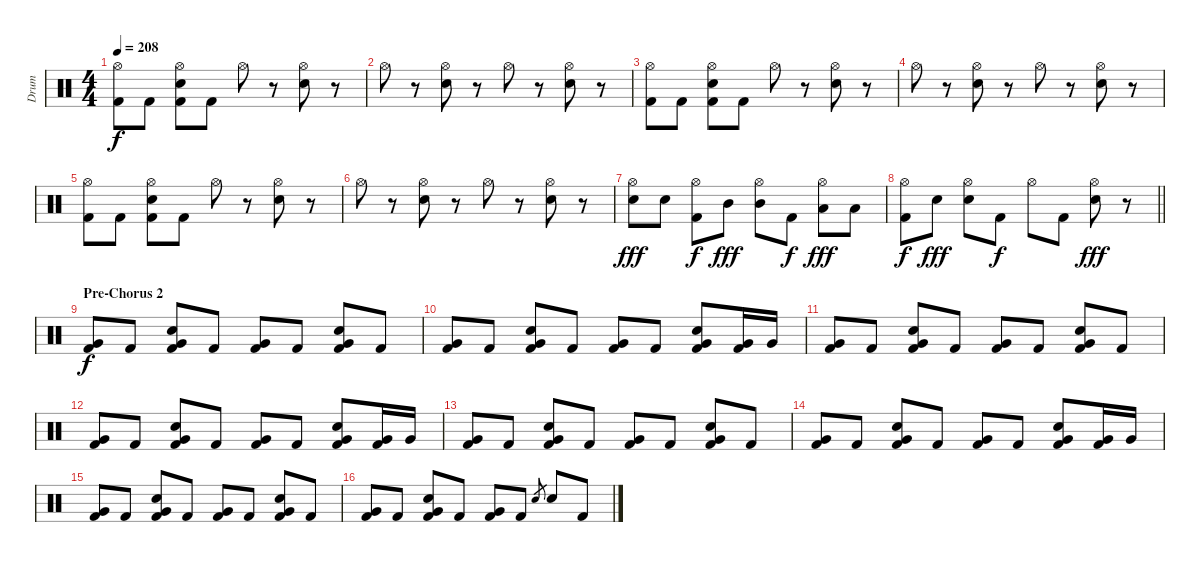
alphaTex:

\track ("Drum" "Drum") {instrument percussion}
\staff {score}
\articulation defaults
\ts (4 4)
\tempo 208
\clef neutral
\ks c
("Hi-Hat (open)" "Kick (hit) 2").8{dy f} "Kick (hit) 2".8 ("Hi-Hat (open)" "Electric Snare (hit)" "Kick (hit) 2").8 "Kick (hit) 2".8 "Hi-Hat (open)".8 r.8 ("Hi-Hat (open)" "Electric Snare (hit)").8 r.8 |
"Hi-Hat (open)".8 r.8 ("Hi-Hat (open)" "Electric Snare (hit)").8 r.8 "Hi-Hat (open)".8 r.8 ("Hi-Hat (open)" "Electric Snare (hit)").8 r.8 |
("Hi-Hat (open)" "Kick (hit) 2").8 "Kick (hit) 2".8 ("Hi-Hat (open)" "Electric Snare (hit)" "Kick (hit) 2").8 "Kick (hit) 2".8 "Hi-Hat (open)".8 r.8 ("Hi-Hat (open)" "Electric Snare (hit)").8 r.8 |
"Hi-Hat (open)".8 r.8 ("Hi-Hat (open)" "Electric Snare (hit)").8 r.8 "Hi-Hat (open)".8 r.8 ("Hi-Hat (open)" "Electric Snare (hit)").8 r.8 |
("Hi-Hat (open)" "Kick (hit) 2").8 "Kick (hit) 2".8 ("Hi-Hat (open)" "Electric Snare (hit)" "Kick (hit) 2").8 "Kick (hit) 2".8 "Hi-Hat (open)".8 r.8 ("Hi-Hat (open)" "Electric Snare (hit)").8 r.8 |
"Hi-Hat (open)".8 r.8 ("Hi-Hat (open)" "Electric Snare (hit)").8 r.8 "Hi-Hat (open)".8 r.8 ("Hi-Hat (open)" "Electric Snare (hit)").8 r.8 |
("Hi-Hat (open)" "Electric Snare (hit)").8{dy fff} "Electric Snare (hit)".8 ("Hi-Hat (open)" "Kick (hit) 2").8{dy f} "Mid Tom (hit)".8{dy fff} ("Hi-Hat (open)" "Mid Tom (hit)").8 "Kick (hit) 2".8{dy f} ("Hi-Hat (open)" "Low Tom (hit)").8{dy fff} "Low Tom (hit)".8 |
\barLineRight lightlight
("Hi-Hat (open)" "Kick (hit) 2").8{dy f} "Electric Snare (hit)".8{dy fff} ("Hi-Hat (open)" "Electric Snare (hit)").8 "Kick (hit) 2".8{dy f} "Hi-Hat (open)".8 "Kick (hit) 2".8 ("Hi-Hat (open)" "Electric Snare (hit)").8{dy fff} r.8 |
\section ("" "Pre-Chorus 2")
("Very Low Tom (hit)" "Kick (hit) 2").8{dy f} "Kick (hit) 2".8 ("Very Low Tom (hit)" "Electric Snare (hit)" "Kick (hit) 2").8 "Kick (hit) 2".8 ("Very Low Tom (hit)" "Kick (hit) 2").8 "Kick (hit) 2".8 ("Very Low Tom (hit)" "Electric Snare (hit)" "Kick (hit) 2").8 "Kick (hit) 2".8 |
("Very Low Tom (hit)" "Kick (hit) 2").8 "Kick (hit) 2".8 ("Very Low Tom (hit)" "Electric Snare (hit)" "Kick (hit) 2").8 "Kick (hit) 2".8 ("Very Low Tom (hit)" "Kick (hit) 2").8 "Kick (hit) 2".8 ("Very Low Tom (hit)" "Electric Snare (hit)" "Kick (hit) 2").8 ("Very Low Tom (hit)" "Kick (hit) 2").16 "Very Low Tom (hit)".16 |
("Very Low Tom (hit)" "Kick (hit) 2").8 "Kick (hit) 2".8 ("Very Low Tom (hit)" "Electric Snare (hit)" "Kick (hit) 2").8 "Kick (hit) 2".8 ("Very Low Tom (hit)" "Kick (hit) 2").8 "Kick (hit) 2".8 ("Very Low Tom (hit)" "Electric Snare (hit)" "Kick (hit) 2").8 "Kick (hit) 2".8 |
("Very Low Tom (hit)" "Kick (hit) 2").8 "Kick (hit) 2".8 ("Very Low Tom (hit)" "Electric Snare (hit)" "Kick (hit) 2").8 "Kick (hit) 2".8 ("Very Low Tom (hit)" "Kick (hit) 2").8 "Kick (hit) 2".8 ("Very Low Tom (hit)" "Electric Snare (hit)" "Kick (hit) 2").8 ("Very Low Tom (hit)" "Kick (hit) 2").16 "Very Low Tom (hit)".16 |
("Very Low Tom (hit)" "Kick (hit) 2").8 "Kick (hit) 2".8 ("Very Low Tom (hit)" "Electric Snare (hit)" "Kick (hit) 2").8 "Kick (hit) 2".8 ("Very Low Tom (hit)" "Kick (hit) 2").8 "Kick (hit) 2".8 ("Very Low Tom (hit)" "Electric Snare (hit)" "Kick (hit) 2").8 "Kick (hit) 2".8 |
("Very Low Tom (hit)" "Kick (hit) 2").8 "Kick (hit) 2".8 ("Very Low Tom (hit)" "Electric Snare (hit)" "Kick (hit) 2").8 "Kick (hit) 2".8 ("Very Low Tom (hit)" "Kick (hit) 2").8 "Kick (hit) 2".8 ("Very Low Tom (hit)" "Electric Snare (hit)" "Kick (hit) 2").8 ("Very Low Tom (hit)" "Kick (hit) 2").16 "Very Low Tom (hit)".16 |
("Very Low Tom (hit)" "Kick (hit) 2").8 "Kick (hit) 2".8 ("Very Low Tom (hit)" "Electric Snare (hit)" "Kick (hit) 2").8 "Kick (hit) 2".8 ("Very Low Tom (hit)" "Kick (hit) 2").8 "Kick (hit) 2".8 ("Very Low Tom (hit)" "Electric Snare (hit)" "Kick (hit) 2").8 "Kick (hit) 2".8 |
("Very Low Tom (hit)" "Kick (hit) 2").8 "Kick (hit) 2".8 ("Very Low Tom (hit)" "Electric Snare (hit)" "Kick (hit) 2").8 "Kick (hit) 2".8 ("Very Low Tom (hit)" "Kick (hit) 2").8 "Kick (hit) 2".8 "Electric Snare (hit)".8{gr} "Electric Snare (hit)".8 "Kick (hit) 2".8
